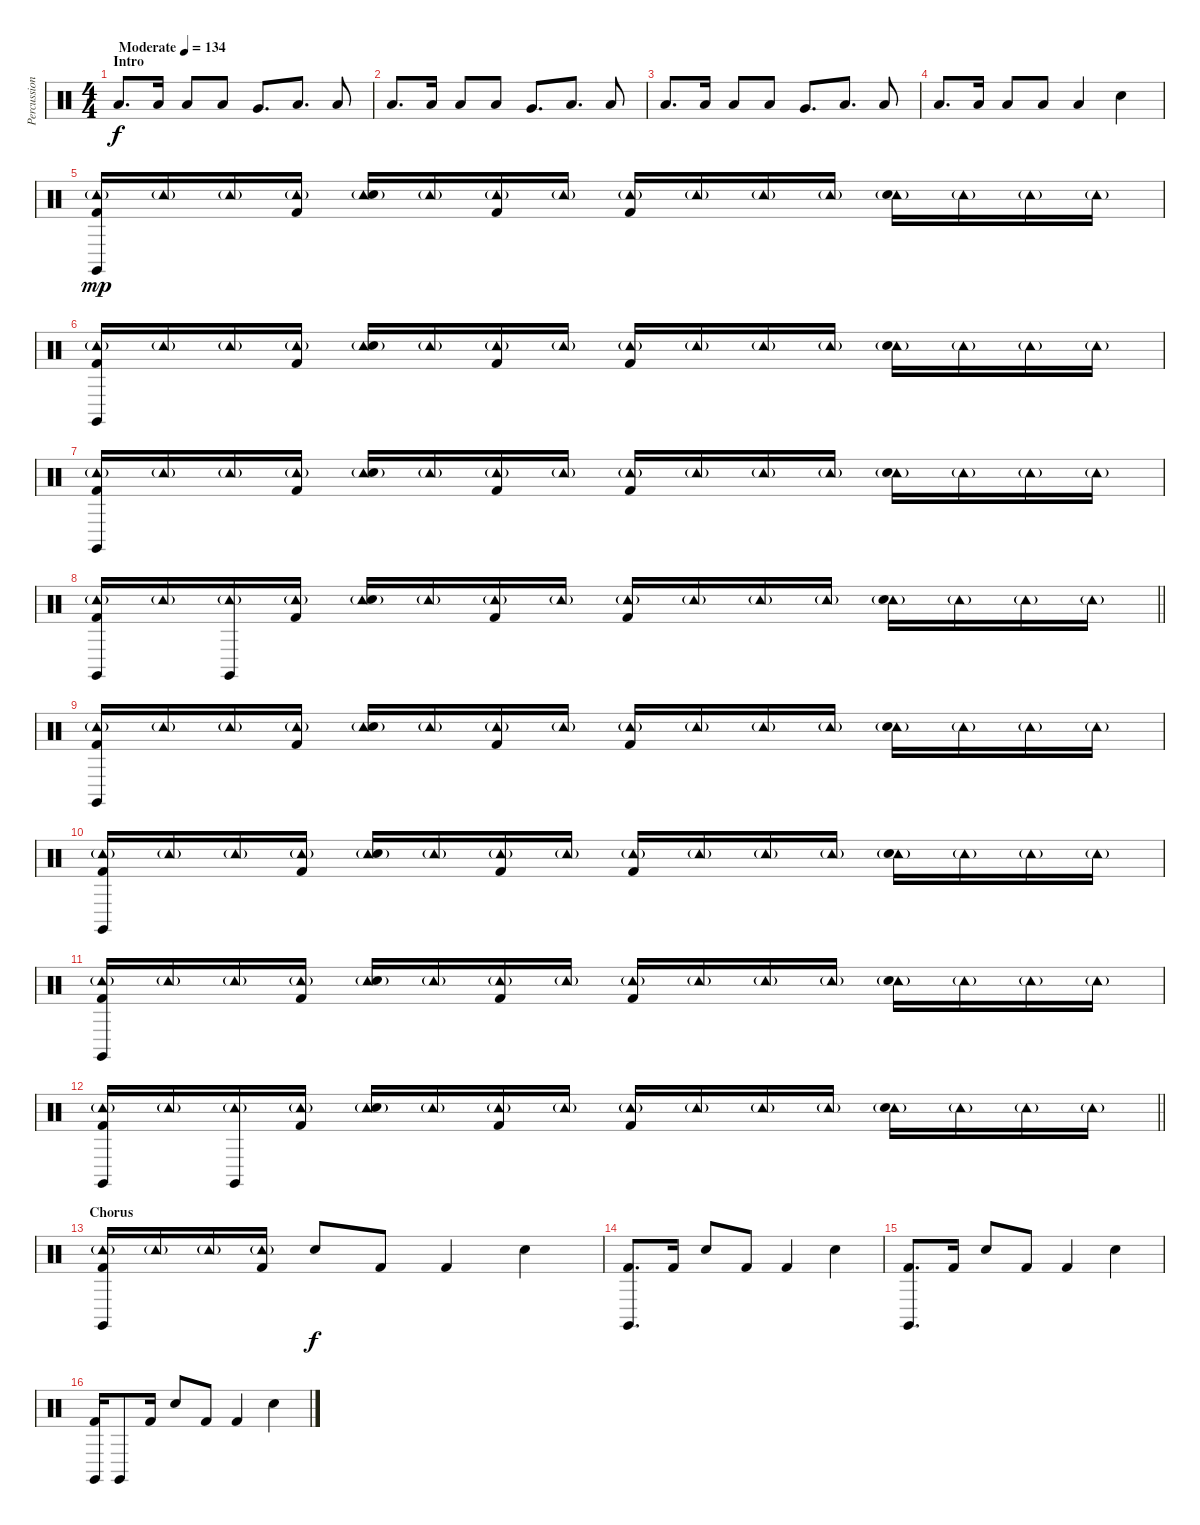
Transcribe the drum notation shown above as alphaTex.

\track ("Percussion" "Percussion") {instrument percussion}
\staff {score}
\articulation defaults
\ts (4 4)
\section ("" "Intro")
\tempo (134 "Moderate")
\clef neutral
\ks c "Low Tom (hit)".8{d dy f} "Low Tom (hit)".16 "Low Tom (hit)".8 "Low Tom (hit)".8 "Very Low Tom (hit)".8{d} "Low Floor Tom (hit)".8{d} "Low Floor Tom (hit)".8
|
"Low Tom (hit)".8{d} "Low Tom (hit)".16 "Low Tom (hit)".8 "Low Tom (hit)".8 "Very Low Tom (hit)".8{d} "Low Floor Tom (hit)".8{d} "Low Floor Tom (hit)".8 |
"Low Tom (hit)".8{d} "Low Tom (hit)".16 "Low Tom (hit)".8 "Low Tom (hit)".8 "Very Low Tom (hit)".8{d} "Low Floor Tom (hit)".8{d} "Low Floor Tom (hit)".8 |
"Low Tom (hit)".8{d} "Low Tom (hit)".16 "Low Tom (hit)".8 "Low Tom (hit)".8 "Low Floor Tom (hit)".4 "Snare (hit) 2".4 |
("Claves (hit)" "Tambourine (hit)"{g} "Kick (hit) 2").16{dy mp} "Tambourine (hit)"{g}.16 "Tambourine (hit)"{g}.16 ("Tambourine (hit)"{g} "Kick (hit) 2").16 ("Tambourine (hit)"{g} "Snare (hit) 2").16 "Tambourine (hit)"{g}.16 ("Tambourine (hit)"{g} "Kick (hit) 2").16 "Tambourine (hit)"{g}.16 ("Tambourine (hit)"{g} "Kick (hit) 2").16 "Tambourine (hit)"{g}.16 "Tambourine (hit)"{g}.16 "Tambourine (hit)"{g}.16 ("Tambourine (hit)"{g} "Snare (hit) 2").16 "Tambourine (hit)"{g}.16 "Tambourine (hit)"{g}.16 "Tambourine (hit)"{g}.16 |
("Claves (hit)" "Tambourine (hit)"{g} "Kick (hit) 2").16 "Tambourine (hit)"{g}.16 "Tambourine (hit)"{g}.16 ("Tambourine (hit)"{g} "Kick (hit) 2").16 ("Tambourine (hit)"{g} "Snare (hit) 2").16 "Tambourine (hit)"{g}.16 ("Tambourine (hit)"{g} "Kick (hit) 2").16 "Tambourine (hit)"{g}.16 ("Tambourine (hit)"{g} "Kick (hit) 2").16 "Tambourine (hit)"{g}.16 "Tambourine (hit)"{g}.16 "Tambourine (hit)"{g}.16 ("Tambourine (hit)"{g} "Snare (hit) 2").16 "Tambourine (hit)"{g}.16 "Tambourine (hit)"{g}.16 "Tambourine (hit)"{g}.16 |
("Claves (hit)" "Tambourine (hit)"{g} "Kick (hit) 2").16 "Tambourine (hit)"{g}.16 "Tambourine (hit)"{g}.16 ("Tambourine (hit)"{g} "Kick (hit) 2").16 ("Tambourine (hit)"{g} "Snare (hit) 2").16 "Tambourine (hit)"{g}.16 ("Tambourine (hit)"{g} "Kick (hit) 2").16 "Tambourine (hit)"{g}.16 ("Tambourine (hit)"{g} "Kick (hit) 2").16 "Tambourine (hit)"{g}.16 "Tambourine (hit)"{g}.16 "Tambourine (hit)"{g}.16 ("Tambourine (hit)"{g} "Snare (hit) 2").16 "Tambourine (hit)"{g}.16 "Tambourine (hit)"{g}.16 "Tambourine (hit)"{g}.16 |
\barLineRight lightlight
("Claves (hit)" "Tambourine (hit)"{g} "Kick (hit) 2").16 "Tambourine (hit)"{g}.16 ("Claves (hit)" "Tambourine (hit)"{g}).16 ("Tambourine (hit)"{g} "Kick (hit) 2").16 ("Tambourine (hit)"{g} "Snare (hit) 2").16 "Tambourine (hit)"{g}.16 ("Tambourine (hit)"{g} "Kick (hit) 2").16 "Tambourine (hit)"{g}.16 ("Tambourine (hit)"{g} "Kick (hit) 2").16 "Tambourine (hit)"{g}.16 "Tambourine (hit)"{g}.16 "Tambourine (hit)"{g}.16 ("Tambourine (hit)"{g} "Snare (hit) 2").16 "Tambourine (hit)"{g}.16 "Tambourine (hit)"{g}.16 "Tambourine (hit)"{g}.16 |
("Claves (hit)" "Tambourine (hit)"{g} "Kick (hit) 2").16 "Tambourine (hit)"{g}.16 "Tambourine (hit)"{g}.16 ("Tambourine (hit)"{g} "Kick (hit) 2").16 ("Tambourine (hit)"{g} "Snare (hit) 2").16 "Tambourine (hit)"{g}.16 ("Tambourine (hit)"{g} "Kick (hit) 2").16 "Tambourine (hit)"{g}.16 ("Tambourine (hit)"{g} "Kick (hit) 2").16 "Tambourine (hit)"{g}.16 "Tambourine (hit)"{g}.16 "Tambourine (hit)"{g}.16 ("Tambourine (hit)"{g} "Snare (hit) 2").16 "Tambourine (hit)"{g}.16 "Tambourine (hit)"{g}.16 "Tambourine (hit)"{g}.16 |
("Claves (hit)" "Tambourine (hit)"{g} "Kick (hit) 2").16 "Tambourine (hit)"{g}.16 "Tambourine (hit)"{g}.16 ("Tambourine (hit)"{g} "Kick (hit) 2").16 ("Tambourine (hit)"{g} "Snare (hit) 2").16 "Tambourine (hit)"{g}.16 ("Tambourine (hit)"{g} "Kick (hit) 2").16 "Tambourine (hit)"{g}.16 ("Tambourine (hit)"{g} "Kick (hit) 2").16 "Tambourine (hit)"{g}.16 "Tambourine (hit)"{g}.16 "Tambourine (hit)"{g}.16 ("Tambourine (hit)"{g} "Snare (hit) 2").16 "Tambourine (hit)"{g}.16 "Tambourine (hit)"{g}.16 "Tambourine (hit)"{g}.16 |
("Claves (hit)" "Tambourine (hit)"{g} "Kick (hit) 2").16 "Tambourine (hit)"{g}.16 "Tambourine (hit)"{g}.16 ("Tambourine (hit)"{g} "Kick (hit) 2").16 ("Tambourine (hit)"{g} "Snare (hit) 2").16 "Tambourine (hit)"{g}.16 ("Tambourine (hit)"{g} "Kick (hit) 2").16 "Tambourine (hit)"{g}.16 ("Tambourine (hit)"{g} "Kick (hit) 2").16 "Tambourine (hit)"{g}.16 "Tambourine (hit)"{g}.16 "Tambourine (hit)"{g}.16 ("Tambourine (hit)"{g} "Snare (hit) 2").16 "Tambourine (hit)"{g}.16 "Tambourine (hit)"{g}.16 "Tambourine (hit)"{g}.16 |
\barLineRight lightlight
("Claves (hit)" "Tambourine (hit)"{g} "Kick (hit) 2").16 "Tambourine (hit)"{g}.16 ("Claves (hit)" "Tambourine (hit)"{g}).16 ("Tambourine (hit)"{g} "Kick (hit) 2").16 ("Tambourine (hit)"{g} "Snare (hit) 2").16 "Tambourine (hit)"{g}.16 ("Tambourine (hit)"{g} "Kick (hit) 2").16 "Tambourine (hit)"{g}.16 ("Tambourine (hit)"{g} "Kick (hit) 2").16 "Tambourine (hit)"{g}.16 "Tambourine (hit)"{g}.16 "Tambourine (hit)"{g}.16 ("Tambourine (hit)"{g} "Snare (hit) 2").16 "Tambourine (hit)"{g}.16 "Tambourine (hit)"{g}.16 "Tambourine (hit)"{g}.16 |
\section ("" "Chorus")
("Claves (hit)" "Tambourine (hit)"{g} "Kick (hit) 2").16 "Tambourine (hit)"{g}.16 "Tambourine (hit)"{g}.16 ("Tambourine (hit)"{g} "Kick (hit) 2").16 "Snare (hit) 2".8{dy f} "Kick (hit) 2".8 "Kick (hit) 2".4 "Snare (hit) 2".4 |
("Claves (hit)" "Kick (hit) 2").8{d} "Kick (hit) 2".16 "Snare (hit) 2".8 "Kick (hit) 2".8 "Kick (hit) 2".4 "Snare (hit) 2".4 |
("Claves (hit)" "Kick (hit) 2").8{d} "Kick (hit) 2".16 "Snare (hit) 2".8 "Kick (hit) 2".8 "Kick (hit) 2".4 "Snare (hit) 2".4 |
("Claves (hit)" "Kick (hit) 2").16 "Claves (hit)".8 "Kick (hit) 2".16 "Snare (hit) 2".8 "Kick (hit) 2".8 "Kick (hit) 2".4 "Snare (hit) 2".4
